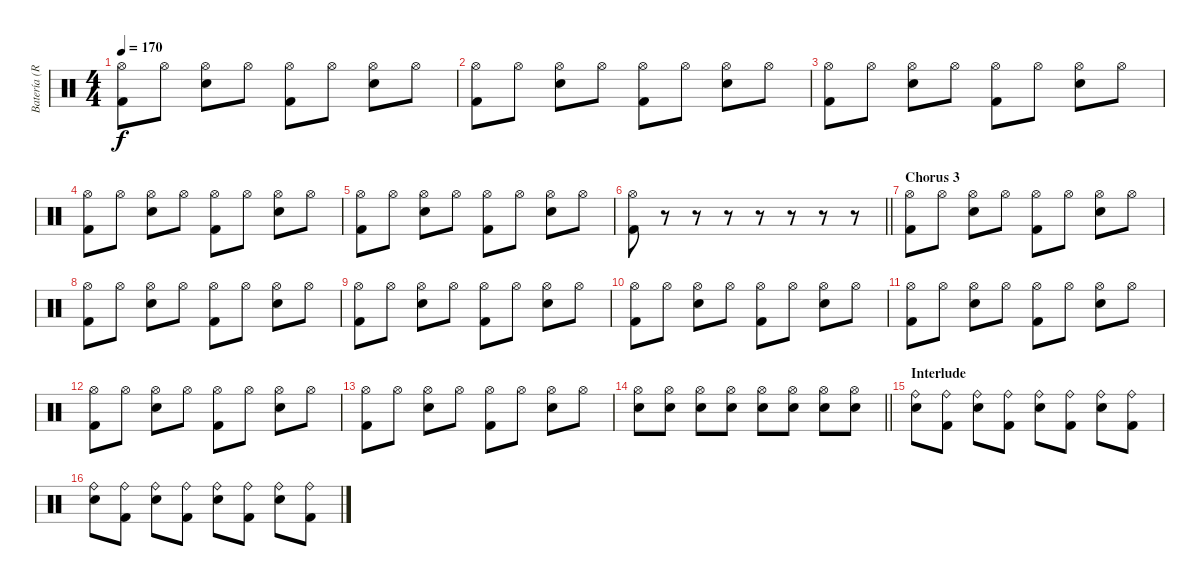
\track ("Batería (Richie)" "Batería (R") {instrument percussion}
\staff {score}
\articulation defaults
\ts (4 4)
\tempo 170
\clef neutral
\ks c
("Hi-Hat (open)" "Kick (hit) 2").8{dy f} "Hi-Hat (open)".8 ("Hi-Hat (open)" "Snare (hit) 2").8 "Hi-Hat (open)".8 ("Hi-Hat (open)" "Kick (hit) 2").8 "Hi-Hat (open)".8 ("Hi-Hat (open)" "Snare (hit) 2").8 "Hi-Hat (open)".8 |
("Hi-Hat (open)" "Kick (hit) 2").8 "Hi-Hat (open)".8 ("Hi-Hat (open)" "Snare (hit) 2").8 "Hi-Hat (open)".8 ("Hi-Hat (open)" "Kick (hit) 2").8 "Hi-Hat (open)".8 ("Hi-Hat (open)" "Snare (hit) 2").8 "Hi-Hat (open)".8 |
("Hi-Hat (open)" "Kick (hit) 2").8 "Hi-Hat (open)".8 ("Hi-Hat (open)" "Snare (hit) 2").8 "Hi-Hat (open)".8 ("Hi-Hat (open)" "Kick (hit) 2").8 "Hi-Hat (open)".8 ("Hi-Hat (open)" "Snare (hit) 2").8 "Hi-Hat (open)".8 |
("Hi-Hat (open)" "Kick (hit) 2").8 "Hi-Hat (open)".8 ("Hi-Hat (open)" "Snare (hit) 2").8 "Hi-Hat (open)".8 ("Hi-Hat (open)" "Kick (hit) 2").8 "Hi-Hat (open)".8 ("Hi-Hat (open)" "Snare (hit) 2").8 "Hi-Hat (open)".8 |
("Hi-Hat (open)" "Kick (hit) 2").8 "Hi-Hat (open)".8 ("Hi-Hat (open)" "Snare (hit) 2").8 "Hi-Hat (open)".8 ("Hi-Hat (open)" "Kick (hit) 2").8 "Hi-Hat (open)".8 ("Hi-Hat (open)" "Snare (hit) 2").8 "Hi-Hat (open)".8 |
\barLineRight lightlight
("Hi-Hat (open)" "Kick (hit) 2").8 r.8 r.8 r.8 r.8 r.8 r.8 r.8 |
\section ("" "Chorus 3")
("Hi-Hat (open)" "Kick (hit) 2").8 "Hi-Hat (open)".8 ("Hi-Hat (open)" "Snare (hit) 2").8 "Hi-Hat (open)".8 ("Hi-Hat (open)" "Kick (hit) 2").8 "Hi-Hat (open)".8 ("Hi-Hat (open)" "Snare (hit) 2").8 "Hi-Hat (open)".8 |
("Hi-Hat (open)" "Kick (hit) 2").8 "Hi-Hat (open)".8 ("Hi-Hat (open)" "Snare (hit) 2").8 "Hi-Hat (open)".8 ("Hi-Hat (open)" "Kick (hit) 2").8 "Hi-Hat (open)".8 ("Hi-Hat (open)" "Snare (hit) 2").8 "Hi-Hat (open)".8 |
("Hi-Hat (open)" "Kick (hit) 2").8 "Hi-Hat (open)".8 ("Hi-Hat (open)" "Snare (hit) 2").8 "Hi-Hat (open)".8 ("Hi-Hat (open)" "Kick (hit) 2").8 "Hi-Hat (open)".8 ("Hi-Hat (open)" "Snare (hit) 2").8 "Hi-Hat (open)".8 |
("Hi-Hat (open)" "Kick (hit) 2").8 "Hi-Hat (open)".8 ("Hi-Hat (open)" "Snare (hit) 2").8 "Hi-Hat (open)".8 ("Hi-Hat (open)" "Kick (hit) 2").8 "Hi-Hat (open)".8 ("Hi-Hat (open)" "Snare (hit) 2").8 "Hi-Hat (open)".8 |
("Hi-Hat (open)" "Kick (hit) 2").8 "Hi-Hat (open)".8 ("Hi-Hat (open)" "Snare (hit) 2").8 "Hi-Hat (open)".8 ("Hi-Hat (open)" "Kick (hit) 2").8 "Hi-Hat (open)".8 ("Hi-Hat (open)" "Snare (hit) 2").8 "Hi-Hat (open)".8 |
("Hi-Hat (open)" "Kick (hit) 2").8 "Hi-Hat (open)".8 ("Hi-Hat (open)" "Snare (hit) 2").8 "Hi-Hat (open)".8 ("Hi-Hat (open)" "Kick (hit) 2").8 "Hi-Hat (open)".8 ("Hi-Hat (open)" "Snare (hit) 2").8 "Hi-Hat (open)".8 |
("Hi-Hat (open)" "Kick (hit) 2").8 "Hi-Hat (open)".8 ("Hi-Hat (open)" "Snare (hit) 2").8 "Hi-Hat (open)".8 ("Hi-Hat (open)" "Kick (hit) 2").8 "Hi-Hat (open)".8 ("Hi-Hat (open)" "Snare (hit) 2").8 "Hi-Hat (open)".8 |
\barLineRight lightlight
("Hi-Hat (open)" "Snare (hit) 2").8 ("Hi-Hat (open)" "Snare (hit) 2").8 ("Hi-Hat (open)" "Snare (hit) 2").8 ("Hi-Hat (open)" "Snare (hit) 2").8 ("Hi-Hat (open)" "Snare (hit) 2").8 ("Hi-Hat (open)" "Snare (hit) 2").8 ("Hi-Hat (open)" "Snare (hit) 2").8 ("Hi-Hat (open)" "Snare (hit) 2").8 |
\section ("" "Interlude")
("Ride (bell)" "Snare (hit) 2").8 ("Ride (bell)" "Kick (hit) 2").8 ("Ride (bell)" "Snare (hit) 2").8 ("Ride (bell)" "Kick (hit) 2").8 ("Ride (bell)" "Snare (hit) 2").8 ("Ride (bell)" "Kick (hit) 2").8 ("Ride (bell)" "Snare (hit) 2").8 ("Ride (bell)" "Kick (hit) 2").8 |
("Ride (bell)" "Snare (hit) 2").8 ("Ride (bell)" "Kick (hit) 2").8 ("Ride (bell)" "Snare (hit) 2").8 ("Ride (bell)" "Kick (hit) 2").8 ("Ride (bell)" "Snare (hit) 2").8 ("Ride (bell)" "Kick (hit) 2").8 ("Ride (bell)" "Snare (hit) 2").8 ("Ride (bell)" "Kick (hit) 2").8
